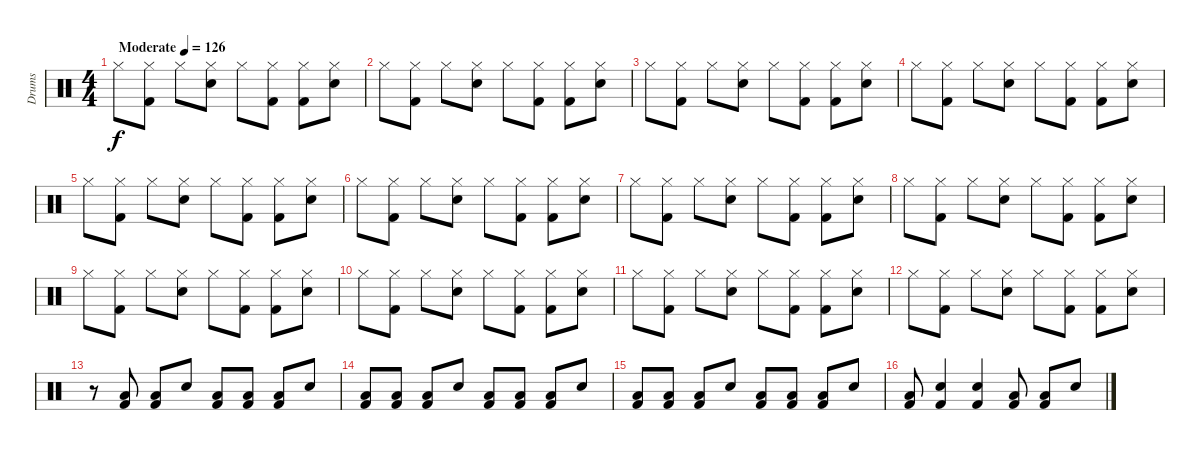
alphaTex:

\track ("Drums" "Drums") {instrument percussion}
\staff {score}
\articulation defaults
\ts (4 4)
\tempo (126 "Moderate")
\clef neutral
\ks c "Hi-Hat (closed)".8{dy f}
("Kick (hit) 2" "Hi-Hat (closed)").8 "Hi-Hat (closed)".8 ("Electric Snare (hit)" "Hi-Hat (closed)").8 "Hi-Hat (closed)".8 ("Kick (hit) 2" "Hi-Hat (closed)").8 ("Kick (hit) 2" "Hi-Hat (closed)").8 ("Electric Snare (hit)" "Hi-Hat (closed)").8 |
"Hi-Hat (closed)".8 ("Kick (hit) 2" "Hi-Hat (closed)").8 "Hi-Hat (closed)".8 ("Electric Snare (hit)" "Hi-Hat (closed)").8 "Hi-Hat (closed)".8 ("Kick (hit) 2" "Hi-Hat (closed)").8 ("Kick (hit) 2" "Hi-Hat (closed)").8 ("Electric Snare (hit)" "Hi-Hat (closed)").8 |
"Hi-Hat (closed)".8 ("Kick (hit) 2" "Hi-Hat (closed)").8 "Hi-Hat (closed)".8 ("Electric Snare (hit)" "Hi-Hat (closed)").8 "Hi-Hat (closed)".8 ("Kick (hit) 2" "Hi-Hat (closed)").8 ("Kick (hit) 2" "Hi-Hat (closed)").8 ("Electric Snare (hit)" "Hi-Hat (closed)").8 |
"Hi-Hat (closed)".8 ("Kick (hit) 2" "Hi-Hat (closed)").8 "Hi-Hat (closed)".8 ("Electric Snare (hit)" "Hi-Hat (closed)").8 "Hi-Hat (closed)".8 ("Kick (hit) 2" "Hi-Hat (closed)").8 ("Kick (hit) 2" "Hi-Hat (closed)").8 ("Electric Snare (hit)" "Hi-Hat (closed)").8 |
"Hi-Hat (closed)".8 ("Kick (hit) 2" "Hi-Hat (closed)").8 "Hi-Hat (closed)".8 ("Electric Snare (hit)" "Hi-Hat (closed)").8 "Hi-Hat (closed)".8 ("Kick (hit) 2" "Hi-Hat (closed)").8 ("Kick (hit) 2" "Hi-Hat (closed)").8 ("Electric Snare (hit)" "Hi-Hat (closed)").8 |
"Hi-Hat (closed)".8 ("Kick (hit) 2" "Hi-Hat (closed)").8 "Hi-Hat (closed)".8 ("Electric Snare (hit)" "Hi-Hat (closed)").8 "Hi-Hat (closed)".8 ("Kick (hit) 2" "Hi-Hat (closed)").8 ("Kick (hit) 2" "Hi-Hat (closed)").8 ("Electric Snare (hit)" "Hi-Hat (closed)").8 |
"Hi-Hat (closed)".8 ("Kick (hit) 2" "Hi-Hat (closed)").8 "Hi-Hat (closed)".8 ("Electric Snare (hit)" "Hi-Hat (closed)").8 "Hi-Hat (closed)".8 ("Kick (hit) 2" "Hi-Hat (closed)").8 ("Kick (hit) 2" "Hi-Hat (closed)").8 ("Electric Snare (hit)" "Hi-Hat (closed)").8 |
"Hi-Hat (closed)".8 ("Kick (hit) 2" "Hi-Hat (closed)").8 "Hi-Hat (closed)".8 ("Electric Snare (hit)" "Hi-Hat (closed)").8 "Hi-Hat (closed)".8 ("Kick (hit) 2" "Hi-Hat (closed)").8 ("Kick (hit) 2" "Hi-Hat (closed)").8 ("Electric Snare (hit)" "Hi-Hat (closed)").8 |
"Hi-Hat (closed)".8 ("Kick (hit) 2" "Hi-Hat (closed)").8 "Hi-Hat (closed)".8 ("Electric Snare (hit)" "Hi-Hat (closed)").8 "Hi-Hat (closed)".8 ("Kick (hit) 2" "Hi-Hat (closed)").8 ("Kick (hit) 2" "Hi-Hat (closed)").8 ("Electric Snare (hit)" "Hi-Hat (closed)").8 |
"Hi-Hat (closed)".8 ("Kick (hit) 2" "Hi-Hat (closed)").8 "Hi-Hat (closed)".8 ("Electric Snare (hit)" "Hi-Hat (closed)").8 "Hi-Hat (closed)".8 ("Kick (hit) 2" "Hi-Hat (closed)").8 ("Kick (hit) 2" "Hi-Hat (closed)").8 ("Electric Snare (hit)" "Hi-Hat (closed)").8 |
"Hi-Hat (closed)".8 ("Kick (hit) 2" "Hi-Hat (closed)").8 "Hi-Hat (closed)".8 ("Electric Snare (hit)" "Hi-Hat (closed)").8 "Hi-Hat (closed)".8 ("Kick (hit) 2" "Hi-Hat (closed)").8 ("Kick (hit) 2" "Hi-Hat (closed)").8 ("Electric Snare (hit)" "Hi-Hat (closed)").8 |
"Hi-Hat (closed)".8 ("Kick (hit) 2" "Hi-Hat (closed)").8 "Hi-Hat (closed)".8 ("Electric Snare (hit)" "Hi-Hat (closed)").8 "Hi-Hat (closed)".8 ("Kick (hit) 2" "Hi-Hat (closed)").8 ("Kick (hit) 2" "Hi-Hat (closed)").8 ("Electric Snare (hit)" "Hi-Hat (closed)").8 |
r.8 ("Kick (hit) 2" "Low Floor Tom (hit)").8 ("Kick (hit) 2" "Low Floor Tom (hit)").8 "Electric Snare (hit)".8 ("Kick (hit) 2" "Low Floor Tom (hit)").8 ("Kick (hit) 2" "Low Floor Tom (hit)").8 ("Kick (hit) 2" "Low Floor Tom (hit)").8 "Electric Snare (hit)".8 |
("Kick (hit) 2" "Low Floor Tom (hit)").8 ("Kick (hit) 2" "Low Floor Tom (hit)").8 ("Kick (hit) 2" "Low Floor Tom (hit)").8 "Electric Snare (hit)".8 ("Kick (hit) 2" "Low Floor Tom (hit)").8 ("Kick (hit) 2" "Low Floor Tom (hit)").8 ("Kick (hit) 2" "Low Floor Tom (hit)").8 "Electric Snare (hit)".8 |
("Kick (hit) 2" "Low Floor Tom (hit)").8 ("Kick (hit) 2" "Low Floor Tom (hit)").8 ("Kick (hit) 2" "Low Floor Tom (hit)").8 "Electric Snare (hit)".8 ("Kick (hit) 2" "Low Floor Tom (hit)").8 ("Kick (hit) 2" "Low Floor Tom (hit)").8 ("Kick (hit) 2" "Low Floor Tom (hit)").8 "Electric Snare (hit)".8 |
("Kick (hit) 2" "Low Floor Tom (hit)").8 ("Kick (hit) 2" "Electric Snare (hit)").4 ("Kick (hit) 2" "Electric Snare (hit)").4 ("Kick (hit) 2" "Low Floor Tom (hit)").8 ("Kick (hit) 2" "Low Floor Tom (hit)").8 "Electric Snare (hit)".8
